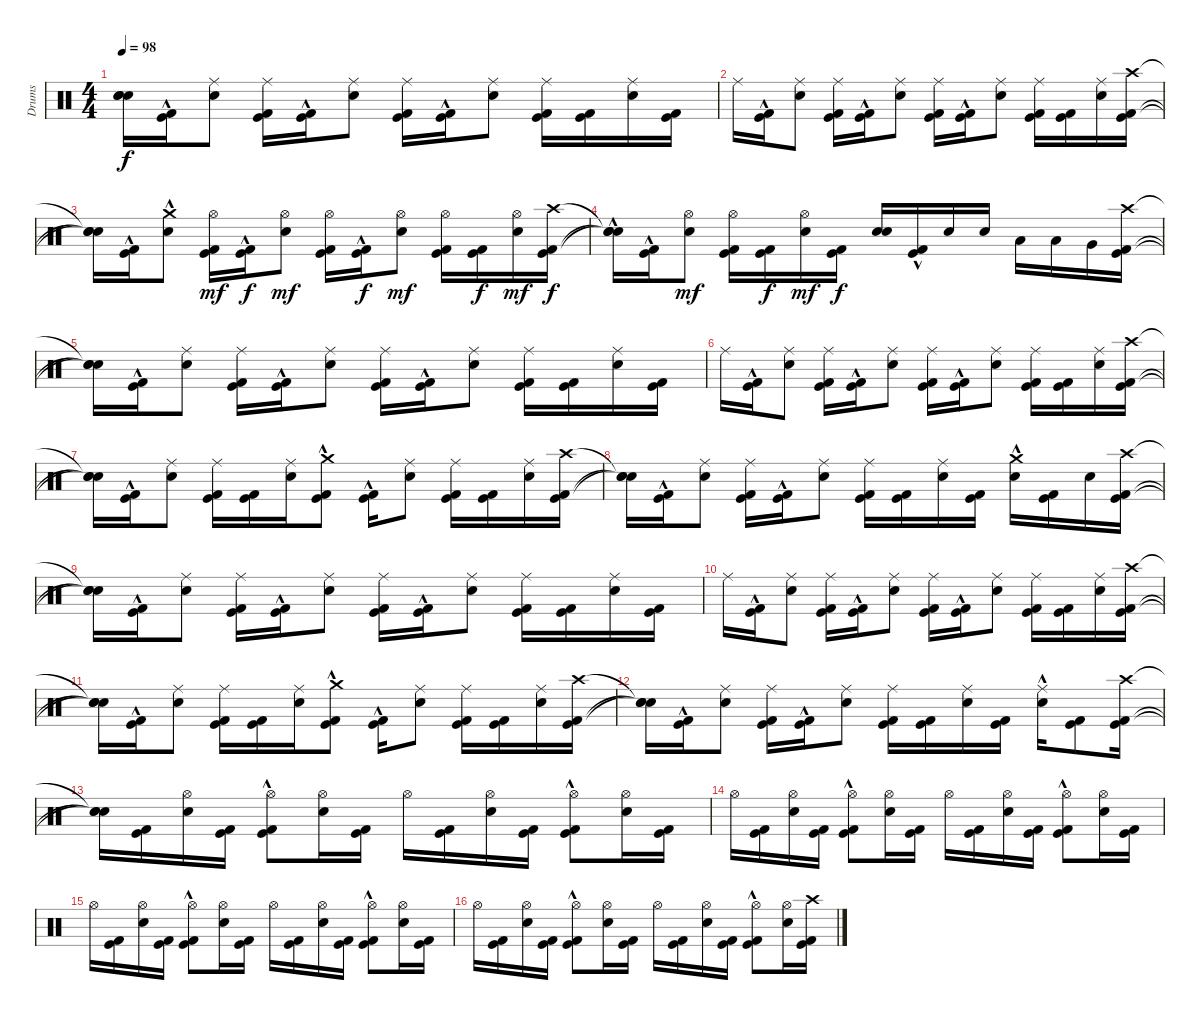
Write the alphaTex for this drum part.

\track ("Drums" "Drums") {instrument percussion}
\staff {score}
\articulation defaults
\ts (4 4)
\tempo 98
\clef neutral
\ks c
("Snare (hit)"{t} "Snare (hit)"{t} "Snare (hit)"{t}).16{dy f} ("Kick (hit)"{hac} "Kick (hit) 2"{hac}).16 ("Electric Snare (hit)" "Ride (middle)").8 ("Kick (hit)" "Kick (hit) 2" "Ride (middle)").16 ("Kick (hit)"{hac} "Kick (hit) 2"{hac}).16 ("Electric Snare (hit)" "Ride (middle)").8 ("Kick (hit)" "Kick (hit) 2" "Ride (middle)").16 ("Kick (hit)"{hac} "Kick (hit) 2"{hac}).16 ("Electric Snare (hit)" "Ride (middle)").8 ("Kick (hit)" "Kick (hit) 2" "Ride (middle)").16 ("Kick (hit)" "Kick (hit) 2").16 ("Electric Snare (hit)" "Ride (middle)").16 ("Kick (hit)" "Kick (hit) 2").16 |
"Ride (middle)".16 ("Kick (hit)"{hac} "Kick (hit) 2"{hac}).16 ("Electric Snare (hit)" "Ride (middle)").8 ("Kick (hit)" "Kick (hit) 2" "Ride (middle)").16 ("Kick (hit)"{hac} "Kick (hit) 2"{hac}).16 ("Electric Snare (hit)" "Ride (middle)").8 ("Kick (hit)" "Kick (hit) 2" "Ride (middle)").16 ("Kick (hit)"{hac} "Kick (hit) 2"{hac}).16 ("Electric Snare (hit)" "Ride (middle)").8 ("Kick (hit)" "Kick (hit) 2" "Ride (middle)").16 ("Kick (hit)" "Kick (hit) 2").16 ("Electric Snare (hit)" "Ride (middle)").16 ("Kick (hit)" "Kick (hit) 2" "Crash high (hit)").16 |
("Snare (hit)"{t} "Snare (hit)"{t} "Snare (hit)"{t}).16 ("Kick (hit)"{hac} "Kick (hit) 2"{hac}).16 ("Electric Snare (hit)" "Crash medium (hit)"{hac}).8 ("Kick (hit)" "Kick (hit) 2" "Hi-Hat (open)").16{dy mf} ("Kick (hit)"{hac} "Kick (hit) 2"{hac}).16{dy f} ("Electric Snare (hit)" "Hi-Hat (open)").8{dy mf} ("Kick (hit)" "Kick (hit) 2" "Hi-Hat (open)").16 ("Kick (hit)"{hac} "Kick (hit) 2"{hac}).16{dy f} ("Electric Snare (hit)" "Hi-Hat (open)").8{dy mf} ("Kick (hit)" "Kick (hit) 2" "Hi-Hat (open)").16 ("Kick (hit)" "Kick (hit) 2").16{dy f} ("Electric Snare (hit)" "Hi-Hat (open)").16{dy mf} ("Kick (hit)" "Kick (hit) 2" "Crash high (hit)").16{dy f} |
("Snare (hit)"{t} "Snare (hit)"{t} "Snare (hit)"{hac t}).16 ("Kick (hit)"{hac} "Kick (hit) 2"{hac}).16 ("Electric Snare (hit)" "Hi-Hat (open)").8{dy mf} ("Kick (hit)" "Kick (hit) 2" "Hi-Hat (open)").16 ("Kick (hit)" "Kick (hit) 2").16{dy f} ("Electric Snare (hit)" "Hi-Hat (open)").16{dy mf} ("Kick (hit)" "Kick (hit) 2").16{dy f} ("Electric Snare (hit)" "Electric Snare (hit)").16 ("Kick (hit)"{hac} "Kick (hit) 2"{hac}).16 "Electric Snare (hit)".16 "Electric Snare (hit)".16 "Low Tom (hit)".16 "Low Tom (hit)".16 "Very Low Tom (hit)".16 ("Kick (hit)" "Kick (hit) 2" "Crash high (hit)").16 |
("Snare (hit)"{t} "Snare (hit)"{t} "Snare (hit)"{t}).16 ("Kick (hit)"{hac} "Kick (hit) 2"{hac}).16 ("Electric Snare (hit)" "Ride (middle)").8 ("Kick (hit)" "Kick (hit) 2" "Ride (middle)").16 ("Kick (hit)"{hac} "Kick (hit) 2"{hac}).16 ("Electric Snare (hit)" "Ride (middle)").8 ("Kick (hit)" "Kick (hit) 2" "Ride (middle)").16 ("Kick (hit)"{hac} "Kick (hit) 2"{hac}).16 ("Electric Snare (hit)" "Ride (middle)").8 ("Kick (hit)" "Kick (hit) 2" "Ride (middle)").16 ("Kick (hit)" "Kick (hit) 2").16 ("Electric Snare (hit)" "Ride (middle)").16 ("Kick (hit)" "Kick (hit) 2").16 |
"Ride (middle)".16 ("Kick (hit)"{hac} "Kick (hit) 2"{hac}).16 ("Electric Snare (hit)" "Ride (middle)").8 ("Kick (hit)" "Kick (hit) 2" "Ride (middle)").16 ("Kick (hit)"{hac} "Kick (hit) 2"{hac}).16 ("Electric Snare (hit)" "Ride (middle)").8 ("Kick (hit)" "Kick (hit) 2" "Ride (middle)").16 ("Kick (hit)"{hac} "Kick (hit) 2"{hac}).16 ("Electric Snare (hit)" "Ride (middle)").8 ("Kick (hit)" "Kick (hit) 2" "Ride (middle)").16 ("Kick (hit)" "Kick (hit) 2").16 ("Electric Snare (hit)" "Ride (middle)").16 ("Kick (hit)" "Kick (hit) 2" "Crash high (hit)").16 |
("Snare (hit)"{t} "Snare (hit)"{t} "Snare (hit)"{t}).16 ("Kick (hit)"{hac} "Kick (hit) 2"{hac}).16 ("Electric Snare (hit)" "Ride (middle)").8 ("Kick (hit)" "Kick (hit) 2" "Ride (middle)").16 ("Kick (hit)" "Kick (hit) 2").16 ("Electric Snare (hit)" "Ride (middle)").16 ("Kick (hit)" "Kick (hit) 2" "Crash medium (hit)"{hac}).8 ("Kick (hit)"{hac} "Kick (hit) 2"{hac}).16 ("Electric Snare (hit)" "Ride (middle)").8 ("Kick (hit)" "Kick (hit) 2" "Ride (middle)").16 ("Kick (hit)" "Kick (hit) 2").16 ("Electric Snare (hit)" "Ride (middle)").16 ("Kick (hit)" "Kick (hit) 2" "Crash high (hit)").16 |
("Snare (hit)"{t} "Snare (hit)"{t} "Snare (hit)"{t}).16 ("Kick (hit)"{hac} "Kick (hit) 2"{hac}).16 ("Electric Snare (hit)" "Ride (middle)").8 ("Kick (hit)" "Kick (hit) 2" "Ride (middle)").16 ("Kick (hit)"{hac} "Kick (hit) 2"{hac}).16 ("Electric Snare (hit)" "Ride (middle)").8 ("Kick (hit)" "Kick (hit) 2" "Ride (middle)").16 ("Kick (hit)" "Kick (hit) 2").16 ("Electric Snare (hit)" "Ride (middle)").16 ("Kick (hit)" "Kick (hit) 2").16 ("Electric Snare (hit)" "Crash medium (hit)"{hac}).16 ("Kick (hit)" "Kick (hit) 2").16 "Electric Snare (hit)".16 ("Kick (hit)" "Kick (hit) 2" "Crash high (hit)").16 |
("Snare (hit)"{t} "Snare (hit)"{t} "Snare (hit)"{t}).16 ("Kick (hit)"{hac} "Kick (hit) 2"{hac}).16 ("Electric Snare (hit)" "Ride (middle)").8 ("Kick (hit)" "Kick (hit) 2" "Ride (middle)").16 ("Kick (hit)"{hac} "Kick (hit) 2"{hac}).16 ("Electric Snare (hit)" "Ride (middle)").8 ("Kick (hit)" "Kick (hit) 2" "Ride (middle)").16 ("Kick (hit)"{hac} "Kick (hit) 2"{hac}).16 ("Electric Snare (hit)" "Ride (middle)").8 ("Kick (hit)" "Kick (hit) 2" "Ride (middle)").16 ("Kick (hit)" "Kick (hit) 2").16 ("Electric Snare (hit)" "Ride (middle)").16 ("Kick (hit)" "Kick (hit) 2").16 |
"Ride (middle)".16 ("Kick (hit)"{hac} "Kick (hit) 2"{hac}).16 ("Electric Snare (hit)" "Ride (middle)").8 ("Kick (hit)" "Kick (hit) 2" "Ride (middle)").16 ("Kick (hit)"{hac} "Kick (hit) 2"{hac}).16 ("Electric Snare (hit)" "Ride (middle)").8 ("Kick (hit)" "Kick (hit) 2" "Ride (middle)").16 ("Kick (hit)"{hac} "Kick (hit) 2"{hac}).16 ("Electric Snare (hit)" "Ride (middle)").8 ("Kick (hit)" "Kick (hit) 2" "Ride (middle)").16 ("Kick (hit)" "Kick (hit) 2").16 ("Electric Snare (hit)" "Ride (middle)").16 ("Kick (hit)" "Kick (hit) 2" "Crash high (hit)").16 |
("Snare (hit)"{t} "Snare (hit)"{t} "Snare (hit)"{t}).16 ("Kick (hit)"{hac} "Kick (hit) 2"{hac}).16 ("Electric Snare (hit)" "Ride (middle)").8 ("Kick (hit)" "Kick (hit) 2" "Ride (middle)").16 ("Kick (hit)" "Kick (hit) 2").16 ("Electric Snare (hit)" "Ride (middle)").16 ("Kick (hit)" "Kick (hit) 2" "Crash medium (hit)"{hac}).8 ("Kick (hit)"{hac} "Kick (hit) 2"{hac}).16 ("Electric Snare (hit)" "Ride (middle)").8 ("Kick (hit)" "Kick (hit) 2" "Ride (middle)").16 ("Kick (hit)" "Kick (hit) 2").16 ("Electric Snare (hit)" "Ride (middle)").16 ("Kick (hit)" "Kick (hit) 2" "Crash high (hit)").16 |
("Snare (hit)"{t} "Snare (hit)"{t} "Snare (hit)"{t}).16 ("Kick (hit)"{hac} "Kick (hit) 2"{hac}).16 ("Electric Snare (hit)" "Ride (middle)").8 ("Kick (hit)" "Kick (hit) 2" "Ride (middle)").16 ("Kick (hit)"{hac} "Kick (hit) 2"{hac}).16 ("Electric Snare (hit)" "Ride (middle)").8 ("Kick (hit)" "Kick (hit) 2" "Ride (middle)").16 ("Kick (hit)" "Kick (hit) 2").16 ("Electric Snare (hit)" "Ride (middle)").16 ("Kick (hit)" "Kick (hit) 2").16 ("Electric Snare (hit)"{hac} "Ride (middle)"{hac}).16 ("Kick (hit)" "Kick (hit) 2").8 ("Kick (hit)" "Kick (hit) 2" "Crash high (hit)").16 |
("Snare (hit)"{t} "Snare (hit)"{t} "Snare (hit)"{t}).16 ("Kick (hit)" "Kick (hit) 2").16 ("Electric Snare (hit)" "Hi-Hat (open)").16 ("Kick (hit)" "Kick (hit) 2").16 ("Kick (hit)"{hac} "Kick (hit) 2"{hac} "Hi-Hat (open)").8 ("Electric Snare (hit)" "Hi-Hat (open)").16 ("Kick (hit)" "Kick (hit) 2").16 "Hi-Hat (open)".16 ("Kick (hit)" "Kick (hit) 2").16 ("Electric Snare (hit)" "Hi-Hat (open)").16 ("Kick (hit)" "Kick (hit) 2").16 ("Kick (hit)"{hac} "Kick (hit) 2"{hac} "Hi-Hat (open)").8 ("Electric Snare (hit)" "Hi-Hat (open)").16 ("Kick (hit)" "Kick (hit) 2").16 |
"Hi-Hat (open)".16 ("Kick (hit)" "Kick (hit) 2").16 ("Electric Snare (hit)" "Hi-Hat (open)").16 ("Kick (hit)" "Kick (hit) 2").16 ("Kick (hit)"{hac} "Kick (hit) 2"{hac} "Hi-Hat (open)").8 ("Electric Snare (hit)" "Hi-Hat (open)").16 ("Kick (hit)" "Kick (hit) 2").16 "Hi-Hat (open)".16 ("Kick (hit)" "Kick (hit) 2").16 ("Electric Snare (hit)" "Hi-Hat (open)").16 ("Kick (hit)" "Kick (hit) 2").16 ("Kick (hit)"{hac} "Kick (hit) 2"{hac} "Hi-Hat (open)").8 ("Electric Snare (hit)" "Hi-Hat (open)").16 ("Kick (hit)" "Kick (hit) 2").16 |
"Hi-Hat (open)".16 ("Kick (hit)" "Kick (hit) 2").16 ("Electric Snare (hit)" "Hi-Hat (open)").16 ("Kick (hit)" "Kick (hit) 2").16 ("Kick (hit)"{hac} "Kick (hit) 2"{hac} "Hi-Hat (open)").8 ("Electric Snare (hit)" "Hi-Hat (open)").16 ("Kick (hit)" "Kick (hit) 2").16 "Hi-Hat (open)".16 ("Kick (hit)" "Kick (hit) 2").16 ("Electric Snare (hit)" "Hi-Hat (open)").16 ("Kick (hit)" "Kick (hit) 2").16 ("Kick (hit)"{hac} "Kick (hit) 2"{hac} "Hi-Hat (open)").8 ("Electric Snare (hit)" "Hi-Hat (open)").16 ("Kick (hit)" "Kick (hit) 2").16 |
"Hi-Hat (open)".16 ("Kick (hit)" "Kick (hit) 2").16 ("Electric Snare (hit)" "Hi-Hat (open)").16 ("Kick (hit)" "Kick (hit) 2").16 ("Kick (hit)"{hac} "Kick (hit) 2"{hac} "Hi-Hat (open)").8 ("Electric Snare (hit)" "Hi-Hat (open)").16 ("Kick (hit)" "Kick (hit) 2").16 "Hi-Hat (open)".16 ("Kick (hit)" "Kick (hit) 2").16 ("Electric Snare (hit)" "Hi-Hat (open)").16 ("Kick (hit)" "Kick (hit) 2").16 ("Kick (hit)"{hac} "Kick (hit) 2"{hac} "Hi-Hat (open)").8 ("Electric Snare (hit)" "Hi-Hat (open)").16 ("Kick (hit)" "Kick (hit) 2" "Crash high (hit)").16
